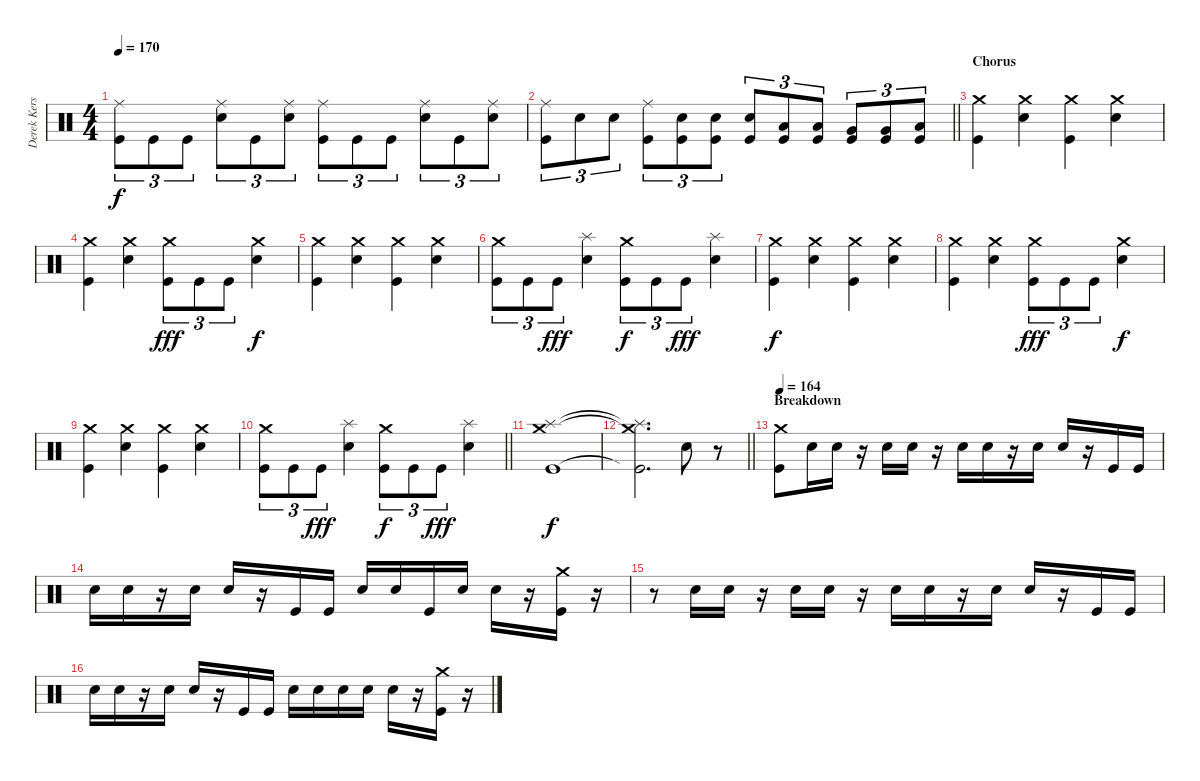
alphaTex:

\track ("Derek Kerswill" "Derek Kers") {instrument percussion}
\staff {score}
\articulation defaults
\ts (4 4)
\tempo 170
\clef neutral
\ks c
("Ride (middle)" "Kick (hit)").8{tu (3 2) dy f} "Kick (hit)".8{tu (3 2)} "Kick (hit)".8{tu (3 2)} ("Ride (middle)" "Snare (hit) 2").8{tu (3 2)} "Kick (hit)".8{tu (3 2)} ("Ride (middle)" "Snare (hit) 2").8{tu (3 2)} ("Ride (middle)" "Kick (hit)").8{tu (3 2)} "Kick (hit)".8{tu (3 2)} "Kick (hit)".8{tu (3 2)} ("Ride (middle)" "Snare (hit) 2").8{tu (3 2)} "Kick (hit)".8{tu (3 2)} ("Ride (middle)" "Snare (hit) 2").8{tu (3 2)} |
\barLineRight lightlight
("Ride (middle)" "Kick (hit)").8{tu (3 2)} "Snare (hit) 2".8{tu (3 2)} "Snare (hit) 2".8{tu (3 2)} ("Ride (middle)" "Kick (hit)").8{tu (3 2)} ("Snare (hit) 2" "Kick (hit)").8{tu (3 2)} ("Snare (hit) 2" "Kick (hit)").8{tu (3 2)} ("Snare (hit) 2" "Kick (hit)").8{tu (3 2)} ("Low Tom (hit)" "Kick (hit)").8{tu (3 2)} ("Low Tom (hit)" "Kick (hit)").8{tu (3 2)} ("Very Low Tom (hit)" "Kick (hit)").8{tu (3 2)} ("Very Low Tom (hit)" "Kick (hit)").8{tu (3 2)} ("Low Floor Tom (hit)" "Kick (hit)").8{tu (3 2)} |
\section ("" "Chorus")
("Crash medium (hit)" "Kick (hit)").4 ("Crash medium (hit)" "Snare (hit) 2").4 ("Crash medium (hit)" "Kick (hit)").4 ("Crash medium (hit)" "Snare (hit) 2").4 |
("Crash medium (hit)" "Kick (hit)").4 ("Crash medium (hit)" "Snare (hit) 2").4 ("Crash medium (hit)" "Kick (hit)").8{tu (3 2) dy fff} "Kick (hit)".8{tu (3 2)} "Kick (hit)".8{tu (3 2)} ("Crash medium (hit)" "Snare (hit) 2").4{dy f} |
("Crash medium (hit)" "Kick (hit)").4 ("Crash medium (hit)" "Snare (hit) 2").4 ("Crash medium (hit)" "Kick (hit)").4 ("Crash medium (hit)" "Snare (hit) 2").4 |
("Crash medium (hit)" "Kick (hit)").8{tu (3 2)} "Kick (hit)".8{tu (3 2)} "Kick (hit)".8{tu (3 2) dy fff} ("Splash (hit)" "Snare (hit) 2").4 ("Crash medium (hit)" "Kick (hit)").8{tu (3 2) dy f} "Kick (hit)".8{tu (3 2)} "Kick (hit)".8{tu (3 2) dy fff} ("Splash (hit)" "Snare (hit) 2").4 |
("Crash medium (hit)" "Kick (hit)").4{dy f} ("Crash medium (hit)" "Snare (hit) 2").4 ("Crash medium (hit)" "Kick (hit)").4 ("Crash medium (hit)" "Snare (hit) 2").4 |
("Crash medium (hit)" "Kick (hit)").4 ("Crash medium (hit)" "Snare (hit) 2").4 ("Crash medium (hit)" "Kick (hit)").8{tu (3 2) dy fff} "Kick (hit)".8{tu (3 2)} "Kick (hit)".8{tu (3 2)} ("Crash medium (hit)" "Snare (hit) 2").4{dy f} |
("Crash medium (hit)" "Kick (hit)").4 ("Crash medium (hit)" "Snare (hit) 2").4 ("Crash medium (hit)" "Kick (hit)").4 ("Crash medium (hit)" "Snare (hit) 2").4 |
\barLineRight lightlight
("Crash medium (hit)" "Kick (hit)").8{tu (3 2)} "Kick (hit)".8{tu (3 2)} "Kick (hit)".8{tu (3 2) dy fff} ("Splash (hit)" "Snare (hit) 2").4 ("Crash medium (hit)" "Kick (hit)").8{tu (3 2) dy f} "Kick (hit)".8{tu (3 2)} "Kick (hit)".8{tu (3 2) dy fff} ("Splash (hit)" "Snare (hit) 2").4 |
("Crash medium (hit)" "Splash (hit)" "Kick (hit)").1{dy f} |
\barLineRight lightlight
("Crash medium (hit)"{t} "Splash (hit)"{t} "Kick (hit)"{t}).2{d} "Snare (hit) 2".8 r.8 |
\section ("" "Breakdown")
\tempo 164
("Crash medium (hit)" "Kick (hit)").8 "Snare (hit) 2".16 "Snare (hit) 2".16 r.16 "Snare (hit) 2".16 "Snare (hit) 2".16 r.16 "Snare (hit) 2".16 "Snare (hit) 2".16 r.16 "Snare (hit) 2".16 "Snare (hit) 2".16 r.16 "Kick (hit)".16 "Kick (hit)".16 |
"Snare (hit) 2".16 "Snare (hit) 2".16 r.16 "Snare (hit) 2".16 "Snare (hit) 2".16 r.16 "Kick (hit)".16 "Kick (hit)".16 "Snare (hit) 2".16 "Snare (hit) 2".16 "Kick (hit)".16 "Snare (hit) 2".16 "Snare (hit) 2".16 r.16 ("Crash medium (hit)" "Kick (hit)").16 r.16 |
r.8 "Snare (hit) 2".16 "Snare (hit) 2".16 r.16 "Snare (hit) 2".16 "Snare (hit) 2".16 r.16 "Snare (hit) 2".16 "Snare (hit) 2".16 r.16 "Snare (hit) 2".16 "Snare (hit) 2".16 r.16 "Kick (hit)".16 "Kick (hit)".16 |
"Snare (hit) 2".16 "Snare (hit) 2".16 r.16 "Snare (hit) 2".16 "Snare (hit) 2".16 r.16 "Kick (hit)".16 "Kick (hit)".16 "Snare (hit) 2".16 "Snare (hit) 2".16 "Snare (hit) 2".16 "Snare (hit) 2".16 "Snare (hit) 2".16 r.16 ("Crash medium (hit)" "Kick (hit)").16 r.16
